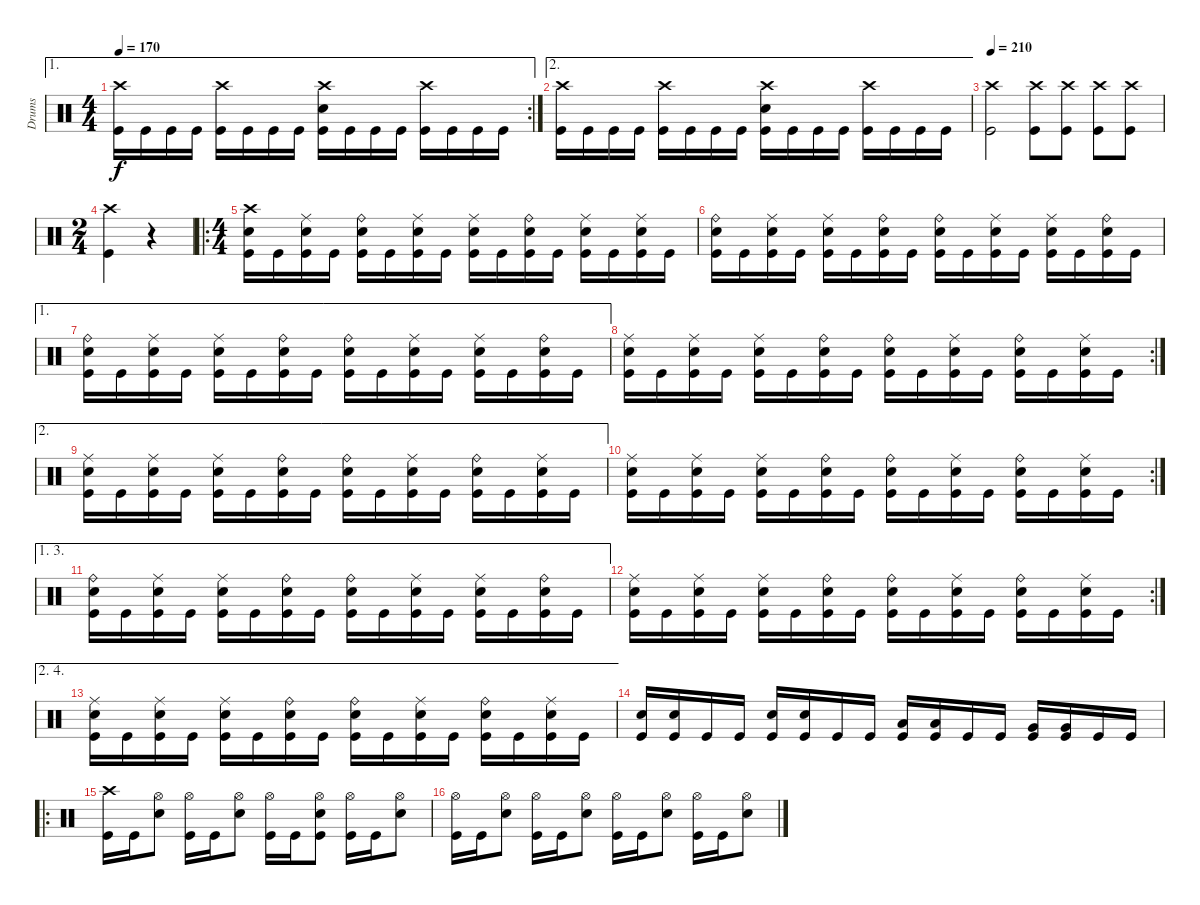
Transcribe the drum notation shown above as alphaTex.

\track ("Drums" "Drums") {instrument percussion}
\staff {score}
\articulation defaults
\ae 1
\rc 2
\ts (4 4)
\tempo 170
\clef neutral
\ks c
("Crash high (hit)" "Kick (hit)").16{dy f} "Kick (hit)".16 "Kick (hit)".16 "Kick (hit)".16 ("Crash high (hit)" "Kick (hit)").16 "Kick (hit)".16 "Kick (hit)".16 "Kick (hit)".16 ("Crash high (hit)" "Electric Snare (hit)" "Kick (hit)").16 "Kick (hit)".16 "Kick (hit)".16 "Kick (hit)".16 ("Crash high (hit)" "Kick (hit)").16 "Kick (hit)".16 "Kick (hit)".16 "Kick (hit)".16 |
\ae 2
("Crash high (hit)" "Kick (hit)").16 "Kick (hit)".16 "Kick (hit)".16 "Kick (hit)".16 ("Crash high (hit)" "Kick (hit)").16 "Kick (hit)".16 "Kick (hit)".16 "Kick (hit)".16 ("Crash high (hit)" "Electric Snare (hit)" "Kick (hit)").16 "Kick (hit)".16 "Kick (hit)".16 "Kick (hit)".16 ("Crash high (hit)" "Kick (hit)").16 "Kick (hit)".16 "Kick (hit)".16 "Kick (hit)".16 |
\tempo 210
("Crash high (hit)" "Kick (hit)").2 ("Crash high (hit)" "Kick (hit)").8 ("Crash high (hit)" "Kick (hit)").8 ("Crash high (hit)" "Kick (hit)").8 ("Crash high (hit)" "Kick (hit)").8 |
\ts (2 4)
("Crash high (hit)" "Kick (hit)").4 r.4{volume 5} |
\ro
\ts (4 4)
("Crash high (hit)" "Electric Snare (hit)" "Kick (hit)").16{volume 16} "Kick (hit)".16 ("Ride (middle)" "Electric Snare (hit)" "Kick (hit)").16 "Kick (hit)".16 ("Ride (bell)" "Electric Snare (hit)" "Kick (hit)").16 "Kick (hit)".16 ("Ride (middle)" "Electric Snare (hit)" "Kick (hit)").16 "Kick (hit)".16 ("Ride (middle)" "Electric Snare (hit)" "Kick (hit)").16 "Kick (hit)".16 ("Ride (bell)" "Electric Snare (hit)" "Kick (hit)").16 "Kick (hit)".16 ("Ride (middle)" "Electric Snare (hit)" "Kick (hit)").16 "Kick (hit)".16 ("Ride (middle)" "Electric Snare (hit)" "Kick (hit)").16 "Kick (hit)".16 |
("Ride (bell)" "Electric Snare (hit)" "Kick (hit)").16 "Kick (hit)".16 ("Ride (middle)" "Electric Snare (hit)" "Kick (hit)").16 "Kick (hit)".16 ("Ride (middle)" "Electric Snare (hit)" "Kick (hit)").16 "Kick (hit)".16 ("Ride (bell)" "Electric Snare (hit)" "Kick (hit)").16 "Kick (hit)".16 ("Ride (bell)" "Electric Snare (hit)" "Kick (hit)").16 "Kick (hit)".16 ("Ride (middle)" "Electric Snare (hit)" "Kick (hit)").16 "Kick (hit)".16 ("Ride (middle)" "Electric Snare (hit)" "Kick (hit)").16 "Kick (hit)".16 ("Ride (bell)" "Electric Snare (hit)" "Kick (hit)").16 "Kick (hit)".16 |
\ae 1
("Ride (bell)" "Electric Snare (hit)" "Kick (hit)").16 "Kick (hit)".16 ("Ride (middle)" "Electric Snare (hit)" "Kick (hit)").16 "Kick (hit)".16 ("Ride (middle)" "Electric Snare (hit)" "Kick (hit)").16 "Kick (hit)".16 ("Ride (bell)" "Electric Snare (hit)" "Kick (hit)").16 "Kick (hit)".16 ("Ride (bell)" "Electric Snare (hit)" "Kick (hit)").16 "Kick (hit)".16 ("Ride (middle)" "Electric Snare (hit)" "Kick (hit)").16 "Kick (hit)".16 ("Ride (middle)" "Electric Snare (hit)" "Kick (hit)").16 "Kick (hit)".16 ("Ride (bell)" "Electric Snare (hit)" "Kick (hit)").16 "Kick (hit)".16 |
\rc 2
("Ride (middle)" "Electric Snare (hit)" "Kick (hit)").16 "Kick (hit)".16 ("Ride (middle)" "Electric Snare (hit)" "Kick (hit)").16 "Kick (hit)".16 ("Ride (middle)" "Electric Snare (hit)" "Kick (hit)").16 "Kick (hit)".16 ("Ride (bell)" "Electric Snare (hit)" "Kick (hit)").16 "Kick (hit)".16 ("Ride (bell)" "Electric Snare (hit)" "Kick (hit)").16 "Kick (hit)".16 ("Ride (middle)" "Electric Snare (hit)" "Kick (hit)").16 "Kick (hit)".16 ("Ride (bell)" "Electric Snare (hit)" "Kick (hit)").16 "Kick (hit)".16 ("Ride (middle)" "Electric Snare (hit)" "Kick (hit)").16 "Kick (hit)".16 |
\ae 2
("Ride (middle)" "Electric Snare (hit)" "Kick (hit)").16 "Kick (hit)".16 ("Ride (middle)" "Electric Snare (hit)" "Kick (hit)").16 "Kick (hit)".16 ("Ride (middle)" "Electric Snare (hit)" "Kick (hit)").16 "Kick (hit)".16 ("Ride (bell)" "Electric Snare (hit)" "Kick (hit)").16 "Kick (hit)".16 ("Ride (bell)" "Electric Snare (hit)" "Kick (hit)").16 "Kick (hit)".16 ("Ride (middle)" "Electric Snare (hit)" "Kick (hit)").16 "Kick (hit)".16 ("Ride (bell)" "Electric Snare (hit)" "Kick (hit)").16 "Kick (hit)".16 ("Ride (middle)" "Electric Snare (hit)" "Kick (hit)").16 "Kick (hit)".16 |
\rc 2
("Ride (middle)" "Electric Snare (hit)" "Kick (hit)").16 "Kick (hit)".16 ("Ride (middle)" "Electric Snare (hit)" "Kick (hit)").16 "Kick (hit)".16 ("Ride (middle)" "Electric Snare (hit)" "Kick (hit)").16 "Kick (hit)".16 ("Ride (bell)" "Electric Snare (hit)" "Kick (hit)").16 "Kick (hit)".16 ("Ride (bell)" "Electric Snare (hit)" "Kick (hit)").16 "Kick (hit)".16 ("Ride (middle)" "Electric Snare (hit)" "Kick (hit)").16 "Kick (hit)".16 ("Ride (bell)" "Electric Snare (hit)" "Kick (hit)").16 "Kick (hit)".16 ("Ride (middle)" "Electric Snare (hit)" "Kick (hit)").16 "Kick (hit)".16 |
\ae (1 3)
("Ride (bell)" "Electric Snare (hit)" "Kick (hit)").16 "Kick (hit)".16 ("Ride (middle)" "Electric Snare (hit)" "Kick (hit)").16 "Kick (hit)".16 ("Ride (middle)" "Electric Snare (hit)" "Kick (hit)").16 "Kick (hit)".16 ("Ride (bell)" "Electric Snare (hit)" "Kick (hit)").16 "Kick (hit)".16 ("Ride (bell)" "Electric Snare (hit)" "Kick (hit)").16 "Kick (hit)".16 ("Ride (middle)" "Electric Snare (hit)" "Kick (hit)").16 "Kick (hit)".16 ("Ride (middle)" "Electric Snare (hit)" "Kick (hit)").16 "Kick (hit)".16 ("Ride (bell)" "Electric Snare (hit)" "Kick (hit)").16 "Kick (hit)".16 |
\rc 2
("Ride (middle)" "Electric Snare (hit)" "Kick (hit)").16 "Kick (hit)".16 ("Ride (middle)" "Electric Snare (hit)" "Kick (hit)").16 "Kick (hit)".16 ("Ride (middle)" "Electric Snare (hit)" "Kick (hit)").16 "Kick (hit)".16 ("Ride (bell)" "Electric Snare (hit)" "Kick (hit)").16 "Kick (hit)".16 ("Ride (bell)" "Electric Snare (hit)" "Kick (hit)").16 "Kick (hit)".16 ("Ride (middle)" "Electric Snare (hit)" "Kick (hit)").16 "Kick (hit)".16 ("Ride (bell)" "Electric Snare (hit)" "Kick (hit)").16 "Kick (hit)".16 ("Ride (middle)" "Electric Snare (hit)" "Kick (hit)").16 "Kick (hit)".16 |
\ae (2 4)
("Ride (middle)" "Electric Snare (hit)" "Kick (hit)").16 "Kick (hit)".16 ("Ride (middle)" "Electric Snare (hit)" "Kick (hit)").16 "Kick (hit)".16 ("Ride (middle)" "Electric Snare (hit)" "Kick (hit)").16 "Kick (hit)".16 ("Ride (bell)" "Electric Snare (hit)" "Kick (hit)").16 "Kick (hit)".16 ("Ride (bell)" "Electric Snare (hit)" "Kick (hit)").16 "Kick (hit)".16 ("Ride (middle)" "Electric Snare (hit)" "Kick (hit)").16 "Kick (hit)".16 ("Ride (bell)" "Electric Snare (hit)" "Kick (hit)").16 "Kick (hit)".16 ("Ride (middle)" "Electric Snare (hit)" "Kick (hit)").16 "Kick (hit)".16 |
("Electric Snare (hit)" "Kick (hit)").16 ("Electric Snare (hit)" "Kick (hit)").16 "Kick (hit)".16 "Kick (hit)".16 ("Electric Snare (hit)" "Kick (hit)").16 ("Electric Snare (hit)" "Kick (hit)").16 "Kick (hit)".16 "Kick (hit)".16 ("Low Tom (hit)" "Kick (hit)").16 ("Low Tom (hit)" "Kick (hit)").16 "Kick (hit)".16 "Kick (hit)".16 ("Very Low Tom (hit)" "Kick (hit)").16 ("Very Low Tom (hit)" "Kick (hit)").16 "Kick (hit)".16 "Kick (hit)".16 |
\ro
("Crash high (hit)" "Kick (hit)").16 "Kick (hit)".16 ("Hi-Hat (open)" "Electric Snare (hit)").8 ("Hi-Hat (open)" "Kick (hit)").16 "Kick (hit)".16 ("Hi-Hat (open)" "Electric Snare (hit)").8 ("Hi-Hat (open)" "Kick (hit)").16 "Kick (hit)".16 ("Hi-Hat (open)" "Electric Snare (hit)" "Kick (hit)").8 ("Hi-Hat (open)" "Kick (hit)").16 "Kick (hit)".16 ("Hi-Hat (open)" "Electric Snare (hit)").8 |
("Hi-Hat (open)" "Kick (hit)").16 "Kick (hit)".16 ("Hi-Hat (open)" "Electric Snare (hit)").8 ("Hi-Hat (open)" "Kick (hit)").16 "Kick (hit)".16 ("Hi-Hat (open)" "Electric Snare (hit)").8 ("Hi-Hat (open)" "Kick (hit)").16 "Kick (hit)".16 ("Hi-Hat (open)" "Electric Snare (hit)").8 ("Hi-Hat (open)" "Kick (hit)").16 "Kick (hit)".16 ("Hi-Hat (open)" "Electric Snare (hit)").8
